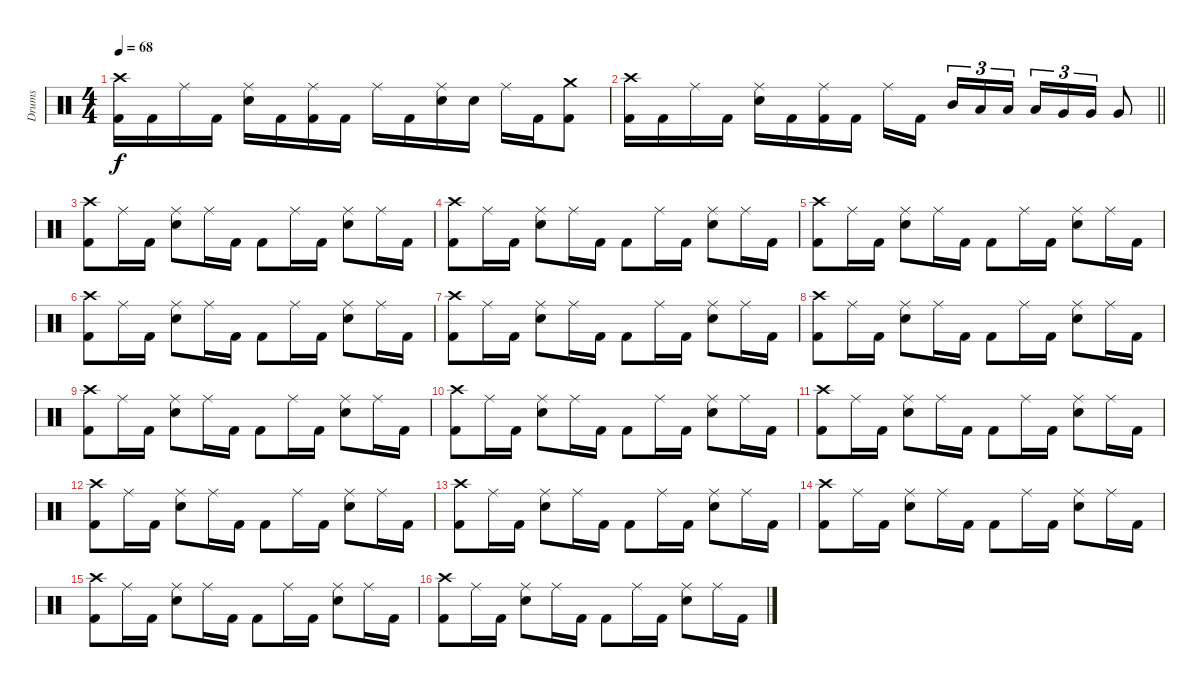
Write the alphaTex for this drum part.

\track ("Drums" "Drums") {instrument percussion}
\staff {score}
\articulation defaults
\ts (4 4)
\tempo 68
\clef neutral
\ks c
("Crash high (hit)" "Kick (hit) 2").16{dy f} "Kick (hit) 2".16 "Ride (middle)".16 "Kick (hit) 2".16 ("Ride (middle)" "Electric Snare (hit)").16 "Kick (hit) 2".16 ("Ride (middle)" "Kick (hit) 2").16 "Kick (hit) 2".16 "Ride (middle)".16 "Kick (hit) 2".16 ("Ride (middle)" "Electric Snare (hit)").16 "Electric Snare (hit)".16 "Ride (middle)".16 "Kick (hit) 2".16 ("Crash medium (hit)" "Kick (hit) 2").8 |
\barLineRight lightlight
("Crash high (hit)" "Kick (hit) 2").16 "Kick (hit) 2".16 "Ride (middle)".16 "Kick (hit) 2".16 ("Ride (middle)" "Electric Snare (hit)").16 "Kick (hit) 2".16 ("Ride (middle)" "Kick (hit) 2").16 "Kick (hit) 2".16 "Ride (middle)".16 "Kick (hit) 2".16{beam splitsecondary} "Mid Tom (hit)".16{tu (3 2)} "Low Tom (hit)".16{tu (3 2)} "Low Tom (hit)".16{tu (3 2)} "Low Tom (hit)".16{tu (3 2)} "Very Low Tom (hit)".16{tu (3 2)} "Very Low Tom (hit)".16{tu (3 2)} "Very Low Tom (hit)".8 |
("Crash high (hit)" "Kick (hit) 2").8 "Ride (middle)".16 "Kick (hit) 2".16 ("Ride (middle)" "Electric Snare (hit)").8 "Ride (middle)".16 "Kick (hit) 2".16 "Kick (hit) 2".8 "Ride (middle)".16 "Kick (hit) 2".16 ("Ride (middle)" "Electric Snare (hit)").8 "Ride (middle)".16 "Kick (hit) 2".16 |
("Crash high (hit)" "Kick (hit) 2").8 "Ride (middle)".16 "Kick (hit) 2".16 ("Ride (middle)" "Electric Snare (hit)").8 "Ride (middle)".16 "Kick (hit) 2".16 "Kick (hit) 2".8 "Ride (middle)".16 "Kick (hit) 2".16 ("Ride (middle)" "Electric Snare (hit)").8 "Ride (middle)".16 "Kick (hit) 2".16 |
("Crash high (hit)" "Kick (hit) 2").8 "Ride (middle)".16 "Kick (hit) 2".16 ("Ride (middle)" "Electric Snare (hit)").8 "Ride (middle)".16 "Kick (hit) 2".16 "Kick (hit) 2".8 "Ride (middle)".16 "Kick (hit) 2".16 ("Ride (middle)" "Electric Snare (hit)").8 "Ride (middle)".16 "Kick (hit) 2".16 |
("Crash high (hit)" "Kick (hit) 2").8 "Ride (middle)".16 "Kick (hit) 2".16 ("Ride (middle)" "Electric Snare (hit)").8 "Ride (middle)".16 "Kick (hit) 2".16 "Kick (hit) 2".8 "Ride (middle)".16 "Kick (hit) 2".16 ("Ride (middle)" "Electric Snare (hit)").8 "Ride (middle)".16 "Kick (hit) 2".16 |
("Crash high (hit)" "Kick (hit) 2").8 "Ride (middle)".16 "Kick (hit) 2".16 ("Ride (middle)" "Electric Snare (hit)").8 "Ride (middle)".16 "Kick (hit) 2".16 "Kick (hit) 2".8 "Ride (middle)".16 "Kick (hit) 2".16 ("Ride (middle)" "Electric Snare (hit)").8 "Ride (middle)".16 "Kick (hit) 2".16 |
("Crash high (hit)" "Kick (hit) 2").8 "Ride (middle)".16 "Kick (hit) 2".16 ("Ride (middle)" "Electric Snare (hit)").8 "Ride (middle)".16 "Kick (hit) 2".16 "Kick (hit) 2".8 "Ride (middle)".16 "Kick (hit) 2".16 ("Ride (middle)" "Electric Snare (hit)").8 "Ride (middle)".16 "Kick (hit) 2".16 |
("Crash high (hit)" "Kick (hit) 2").8 "Ride (middle)".16 "Kick (hit) 2".16 ("Ride (middle)" "Electric Snare (hit)").8 "Ride (middle)".16 "Kick (hit) 2".16 "Kick (hit) 2".8 "Ride (middle)".16 "Kick (hit) 2".16 ("Ride (middle)" "Electric Snare (hit)").8 "Ride (middle)".16 "Kick (hit) 2".16 |
("Crash high (hit)" "Kick (hit) 2").8 "Ride (middle)".16 "Kick (hit) 2".16 ("Ride (middle)" "Electric Snare (hit)").8 "Ride (middle)".16 "Kick (hit) 2".16 "Kick (hit) 2".8 "Ride (middle)".16 "Kick (hit) 2".16 ("Ride (middle)" "Electric Snare (hit)").8 "Ride (middle)".16 "Kick (hit) 2".16 |
("Crash high (hit)" "Kick (hit) 2").8 "Ride (middle)".16 "Kick (hit) 2".16 ("Ride (middle)" "Electric Snare (hit)").8 "Ride (middle)".16 "Kick (hit) 2".16 "Kick (hit) 2".8 "Ride (middle)".16 "Kick (hit) 2".16 ("Ride (middle)" "Electric Snare (hit)").8 "Ride (middle)".16 "Kick (hit) 2".16 |
("Crash high (hit)" "Kick (hit) 2").8 "Ride (middle)".16 "Kick (hit) 2".16 ("Ride (middle)" "Electric Snare (hit)").8 "Ride (middle)".16 "Kick (hit) 2".16 "Kick (hit) 2".8 "Ride (middle)".16 "Kick (hit) 2".16 ("Ride (middle)" "Electric Snare (hit)").8 "Ride (middle)".16 "Kick (hit) 2".16 |
("Crash high (hit)" "Kick (hit) 2").8 "Ride (middle)".16 "Kick (hit) 2".16 ("Ride (middle)" "Electric Snare (hit)").8 "Ride (middle)".16 "Kick (hit) 2".16 "Kick (hit) 2".8 "Ride (middle)".16 "Kick (hit) 2".16 ("Ride (middle)" "Electric Snare (hit)").8 "Ride (middle)".16 "Kick (hit) 2".16 |
("Crash high (hit)" "Kick (hit) 2").8 "Ride (middle)".16 "Kick (hit) 2".16 ("Ride (middle)" "Electric Snare (hit)").8 "Ride (middle)".16 "Kick (hit) 2".16 "Kick (hit) 2".8 "Ride (middle)".16 "Kick (hit) 2".16 ("Ride (middle)" "Electric Snare (hit)").8 "Ride (middle)".16 "Kick (hit) 2".16 |
("Crash high (hit)" "Kick (hit) 2").8 "Ride (middle)".16 "Kick (hit) 2".16 ("Ride (middle)" "Electric Snare (hit)").8 "Ride (middle)".16 "Kick (hit) 2".16 "Kick (hit) 2".8 "Ride (middle)".16 "Kick (hit) 2".16 ("Ride (middle)" "Electric Snare (hit)").8 "Ride (middle)".16 "Kick (hit) 2".16 |
("Crash high (hit)" "Kick (hit) 2").8 "Ride (middle)".16 "Kick (hit) 2".16 ("Ride (middle)" "Electric Snare (hit)").8 "Ride (middle)".16 "Kick (hit) 2".16 "Kick (hit) 2".8 "Ride (middle)".16 "Kick (hit) 2".16 ("Ride (middle)" "Electric Snare (hit)").8 "Ride (middle)".16 "Kick (hit) 2".16
